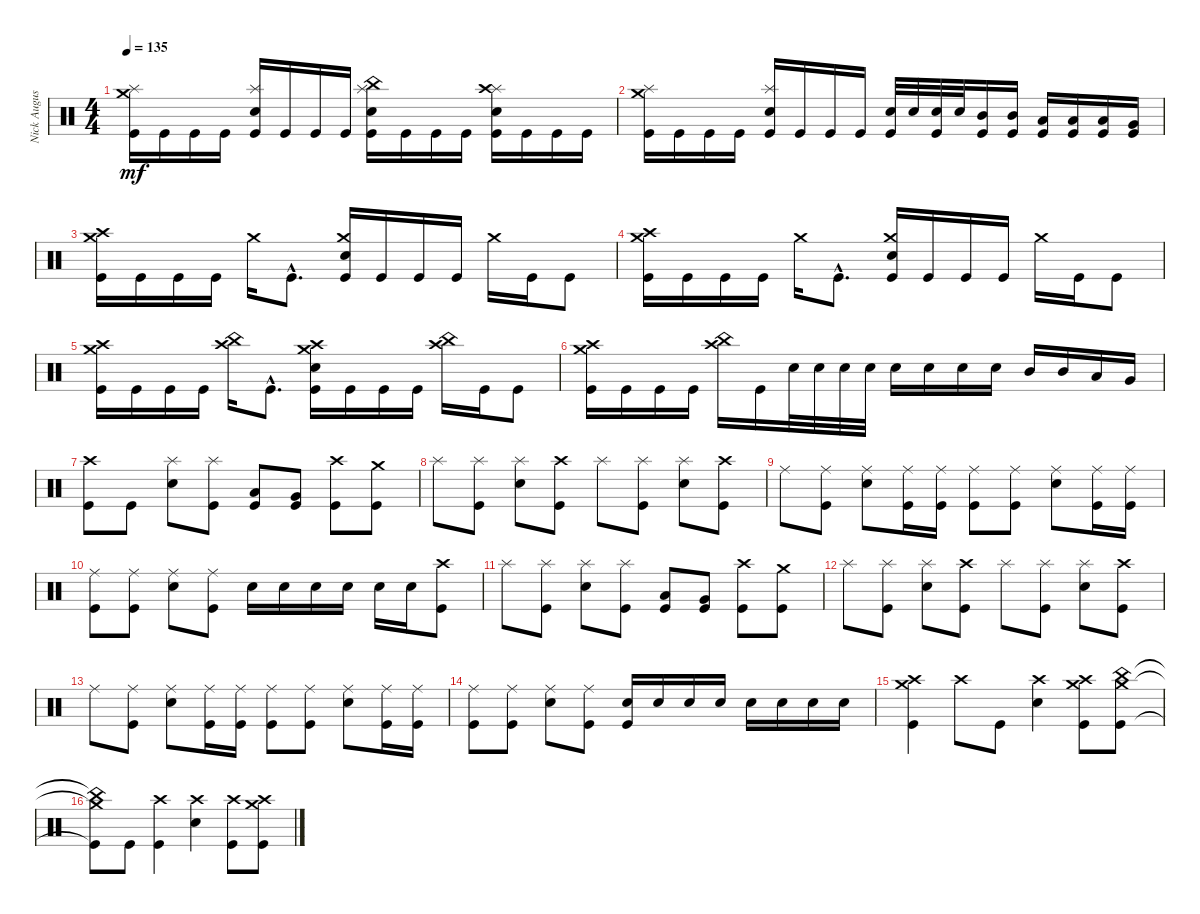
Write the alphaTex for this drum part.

\track ("Nick Augusto" "Nick Augus") {instrument percussion}
\staff {score}
\articulation defaults
\ts (4 4)
\tempo 135
\clef neutral
\ks c
("Kick (hit)" "Splash (hit)" "Crash medium (hit)").16{dy mf} "Kick (hit)".16 "Kick (hit)".16 "Kick (hit)".16 ("Kick (hit)" "Snare (hit) 2" "Splash (hit)").16 "Kick (hit)".16 "Kick (hit)".16 "Kick (hit)".16 ("Kick (hit)" "Snare (hit) 2" "China (hit)" "Splash (hit)").16 "Kick (hit)".16 "Kick (hit)".16 "Kick (hit)".16 ("Kick (hit)" "Snare (hit) 2" "Splash (hit)" "Crash high (hit)").16 "Kick (hit)".16 "Kick (hit)".16 "Kick (hit)".16 |
("Kick (hit)" "Splash (hit)" "Crash medium (hit)").16 "Kick (hit)".16 "Kick (hit)".16 "Kick (hit)".16 ("Kick (hit)" "Snare (hit) 2" "Splash (hit)").16 "Kick (hit)".16 "Kick (hit)".16 "Kick (hit)".16 ("Kick (hit)" "Snare (hit) 2").32 "Snare (hit) 2".32 ("Kick (hit)" "Snare (hit) 2").32 "Snare (hit) 2".32 ("Kick (hit)" "Mid Tom (hit)").16 ("Kick (hit)" "Mid Tom (hit)").16 ("Kick (hit)" "Low Tom (hit)").16 ("Kick (hit)" "Low Tom (hit)").16 ("Kick (hit)" "Low Tom (hit)").16 ("Kick (hit)" "Very Low Tom (hit)").16 |
("Kick (hit)" "Crash high (hit)" "Crash medium (hit)").16 "Kick (hit)".16 "Kick (hit)".16 "Kick (hit)".16 "Crash medium (hit)".16 "Kick (hit)"{hac}.8{d} ("Kick (hit)" "Snare (hit) 2" "Crash medium (hit)").16 "Kick (hit)".16 "Kick (hit)".16 "Kick (hit)".16 "Crash medium (hit)".16 "Kick (hit)".16 "Kick (hit)".8 |
("Kick (hit)" "Crash high (hit)" "Crash medium (hit)").16 "Kick (hit)".16 "Kick (hit)".16 "Kick (hit)".16 "Crash medium (hit)".16 "Kick (hit)"{hac}.8{d} ("Kick (hit)" "Snare (hit) 2" "Crash medium (hit)").16 "Kick (hit)".16 "Kick (hit)".16 "Kick (hit)".16 "Crash medium (hit)".16 "Kick (hit)".16 "Kick (hit)".8 |
("Kick (hit)" "Crash high (hit)" "Crash medium (hit)").16 "Kick (hit)".16 "Kick (hit)".16 "Kick (hit)".16 ("China (hit)" "Crash high (hit)").16 "Kick (hit)"{hac}.8{d} ("Kick (hit)" "Snare (hit) 2" "Crash high (hit)" "Crash medium (hit)").16 "Kick (hit)".16 "Kick (hit)".16 "Kick (hit)".16 ("China (hit)" "Crash high (hit)").16 "Kick (hit)".16 "Kick (hit)".8 |
("Kick (hit)" "Crash high (hit)" "Crash medium (hit)").16 "Kick (hit)".16 "Kick (hit)".16 "Kick (hit)".16 ("China (hit)" "Crash high (hit)").16 "Kick (hit)".16 "Snare (hit) 2".32 "Snare (hit) 2".32 "Snare (hit) 2".32 "Snare (hit) 2".32 "Snare (hit) 2".16 "Snare (hit) 2".16 "Snare (hit) 2".16 "Snare (hit) 2".16 "Mid Tom (hit)".16 "Mid Tom (hit)".16 "Low Tom (hit)".16 "Very Low Tom (hit)".16 |
("Kick (hit)" "Crash high (hit)").8 "Kick (hit)".8 ("Snare (hit) 2" "Splash (hit)").8 ("Kick (hit)" "Splash (hit)").8 ("Kick (hit)" "Low Tom (hit)").8 ("Kick (hit)" "Very Low Tom (hit)").8 ("Kick (hit)" "Crash high (hit)").8 ("Kick (hit)" "Crash medium (hit)").8 |
"Splash (hit)".8 ("Kick (hit)" "Splash (hit)").8 ("Snare (hit) 2" "Splash (hit)").8 ("Kick (hit)" "Crash high (hit)").8 "Splash (hit)".8 ("Kick (hit)" "Splash (hit)").8 ("Snare (hit) 2" "Splash (hit)").8 ("Kick (hit)" "Crash high (hit)").8 |
"Ride (middle)".8 ("Kick (hit)" "Ride (middle)").8 ("Snare (hit) 2" "Ride (middle)").8 ("Kick (hit)" "Ride (middle)").16 ("Kick (hit)" "Ride (middle)").16 ("Kick (hit)" "Ride (middle)").8 ("Kick (hit)" "Ride (middle)").8 ("Snare (hit) 2" "Ride (middle)").8 ("Kick (hit)" "Ride (middle)").16 ("Kick (hit)" "Ride (middle)").16 |
("Kick (hit)" "Ride (middle)").8 ("Kick (hit)" "Ride (middle)").8 ("Snare (hit) 2" "Ride (middle)").8 ("Kick (hit)" "Ride (middle)").8 "Snare (hit) 2".16 "Snare (hit) 2".16 "Snare (hit) 2".16 "Snare (hit) 2".16 "Snare (hit) 2".16 "Snare (hit) 2".16 ("Kick (hit)" "Crash high (hit)").8 |
"Splash (hit)".8 ("Kick (hit)" "Splash (hit)").8 ("Snare (hit) 2" "Splash (hit)").8 ("Kick (hit)" "Splash (hit)").8 ("Kick (hit)" "Low Tom (hit)").8 ("Kick (hit)" "Very Low Tom (hit)").8 ("Kick (hit)" "Crash high (hit)").8 ("Kick (hit)" "Crash medium (hit)").8 |
"Splash (hit)".8 ("Kick (hit)" "Splash (hit)").8 ("Snare (hit) 2" "Splash (hit)").8 ("Kick (hit)" "Crash high (hit)").8 "Splash (hit)".8 ("Kick (hit)" "Splash (hit)").8 ("Snare (hit) 2" "Splash (hit)").8 ("Kick (hit)" "Crash high (hit)").8 |
"Ride (middle)".8 ("Kick (hit)" "Ride (middle)").8 ("Snare (hit) 2" "Ride (middle)").8 ("Kick (hit)" "Ride (middle)").16 ("Kick (hit)" "Ride (middle)").16 ("Kick (hit)" "Ride (middle)").8 ("Kick (hit)" "Ride (middle)").8 ("Snare (hit) 2" "Ride (middle)").8 ("Kick (hit)" "Ride (middle)").16 ("Kick (hit)" "Ride (middle)").16 |
("Kick (hit)" "Ride (middle)").8 ("Kick (hit)" "Ride (middle)").8 ("Snare (hit) 2" "Ride (middle)").8 ("Kick (hit)" "Ride (middle)").8 ("Kick (hit)" "Snare (hit) 2").16 "Snare (hit) 2".16 "Snare (hit) 2".16 "Snare (hit) 2".16 "Snare (hit) 2".16 "Snare (hit) 2".16 "Snare (hit) 2".16 "Snare (hit) 2".16 |
("Kick (hit)" "Crash high (hit)" "Crash medium (hit)").4 "Crash high (hit)".8 "Kick (hit)".8 ("Snare (hit) 2" "Crash high (hit)").4 ("Kick (hit)" "Crash high (hit)" "Crash medium (hit)").8 ("Kick (hit)" "China (hit)" "Crash medium (hit)").8 |
("Kick (hit)"{t} "China (hit)"{t} "Crash medium (hit)"{t}).8 "Kick (hit)".8 ("Kick (hit)" "Crash high (hit)").4 ("Snare (hit) 2" "Crash high (hit)").4 ("Kick (hit)" "Crash high (hit)").8 ("Kick (hit)" "Crash high (hit)" "Crash medium (hit)").8
